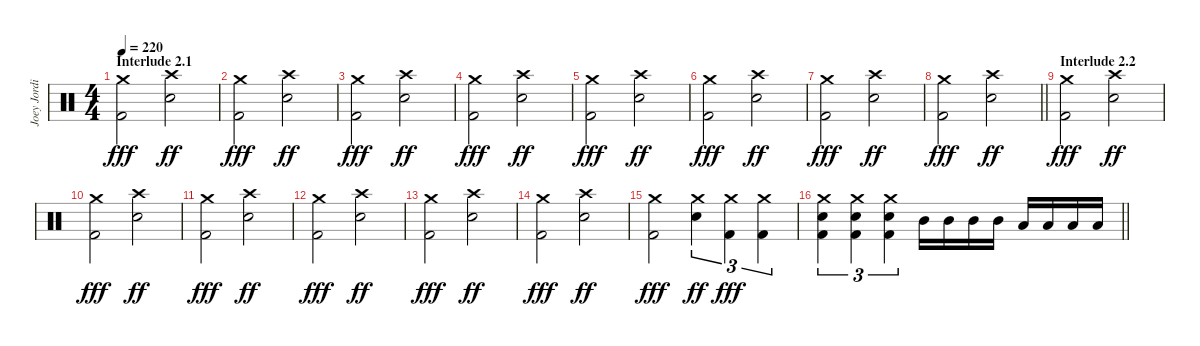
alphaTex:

\track ("Joey Jordison" "Joey Jordi") {instrument percussion}
\staff {score}
\articulation defaults
\ts (4 4)
\section ("" "Interlude 2.1")
\tempo 220
\clef neutral
\ks c
("Crash medium (hit)" "Kick (hit) 2").2{dy fff} ("Crash high (hit)" "Electric Snare (hit)").2{dy ff} |
("Crash medium (hit)" "Kick (hit) 2").2{dy fff} ("Crash high (hit)" "Electric Snare (hit)").2{dy ff} |
("Crash medium (hit)" "Kick (hit) 2").2{dy fff} ("Crash high (hit)" "Electric Snare (hit)").2{dy ff} |
("Crash medium (hit)" "Kick (hit) 2").2{dy fff} ("Crash high (hit)" "Electric Snare (hit)").2{dy ff} |
("Crash medium (hit)" "Kick (hit) 2").2{dy fff} ("Crash high (hit)" "Electric Snare (hit)").2{dy ff} |
("Crash medium (hit)" "Kick (hit) 2").2{dy fff} ("Crash high (hit)" "Electric Snare (hit)").2{dy ff} |
("Crash medium (hit)" "Kick (hit) 2").2{dy fff} ("Crash high (hit)" "Electric Snare (hit)").2{dy ff} |
\barLineRight lightlight
("Crash medium (hit)" "Kick (hit) 2").2{dy fff} ("Crash high (hit)" "Electric Snare (hit)").2{dy ff} |
\section ("" "Interlude 2.2")
("Crash medium (hit)" "Kick (hit) 2").2{dy fff} ("Crash high (hit)" "Electric Snare (hit)").2{dy ff} |
("Crash medium (hit)" "Kick (hit) 2").2{dy fff} ("Crash high (hit)" "Electric Snare (hit)").2{dy ff} |
("Crash medium (hit)" "Kick (hit) 2").2{dy fff} ("Crash high (hit)" "Electric Snare (hit)").2{dy ff} |
("Crash medium (hit)" "Kick (hit) 2").2{dy fff} ("Crash high (hit)" "Electric Snare (hit)").2{dy ff} |
("Crash medium (hit)" "Kick (hit) 2").2{dy fff} ("Crash high (hit)" "Electric Snare (hit)").2{dy ff} |
("Crash medium (hit)" "Kick (hit) 2").2{dy fff} ("Crash high (hit)" "Electric Snare (hit)").2{dy ff} |
("Crash medium (hit)" "Kick (hit) 2").2{dy fff} ("Crash medium (hit)" "Electric Snare (hit)").4{tu (3 2) dy ff} ("Crash medium (hit)" "Kick (hit) 2").4{tu (3 2) dy fff} ("Crash medium (hit)" "Kick (hit) 2").4{tu (3 2)} |
\barLineRight lightlight
("Crash medium (hit)" "Electric Snare (hit)" "Kick (hit) 2").4{tu (3 2)} ("Crash medium (hit)" "Electric Snare (hit)" "Kick (hit) 2").4{tu (3 2)} ("Crash medium (hit)" "Electric Snare (hit)" "Kick (hit) 2").4{tu (3 2)} "Mid Tom (hit)".16 "Mid Tom (hit)".16 "Mid Tom (hit)".16 "Mid Tom (hit)".16 "Low Tom (hit)".16 "Low Tom (hit)".16 "Low Tom (hit)".16 "Low Tom (hit)".16
